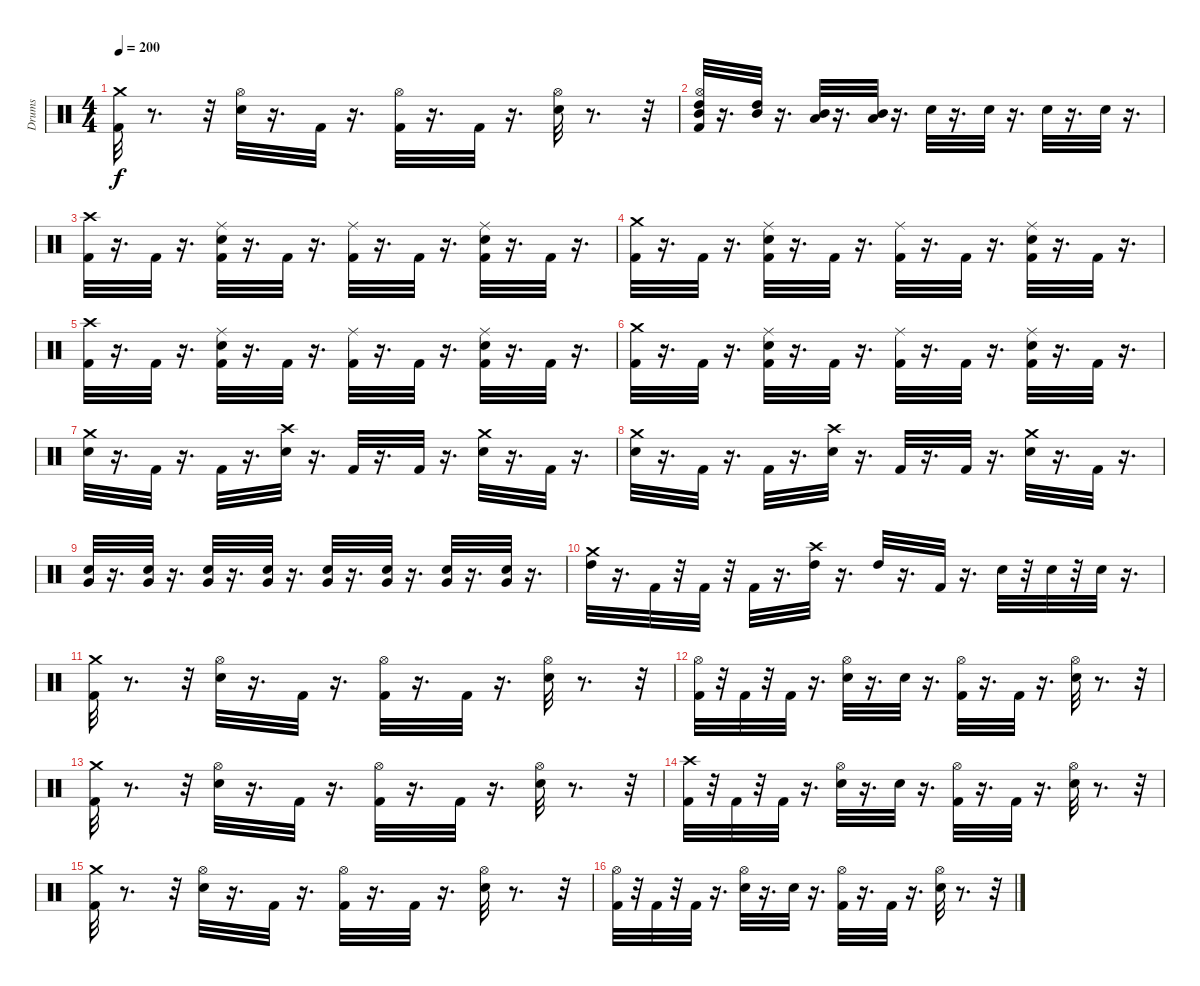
\track ("Drums" "Drums") {instrument percussion}
\staff {score}
\articulation defaults
\ts (4 4)
\tempo 200
\clef neutral
\ks c
("Crash medium (hit)" "Kick (hit) 2").32{dy f} r.8{d} r.32 ("Hi-Hat (open)" "Electric Snare (hit)").32 r.16{d} "Kick (hit) 2".32 r.16{d} ("Hi-Hat (open)" "Kick (hit) 2").32 r.16{d} "Kick (hit) 2".32 r.16{d} ("Hi-Hat (open)" "Electric Snare (hit)").32 r.8{d} r.32 |
("Mid Tom (hit)" "High Tom (hit)" "Hi-Hat (open)" "Kick (hit) 2").32 r.16{d} ("Mid Tom (hit)" "High Tom (hit)").32 r.16{d} ("Low Tom (hit)" "Mid Tom (hit)").32 r.16{d} ("Low Tom (hit)" "Mid Tom (hit)").32 r.16{d} "Electric Snare (hit)".32 r.16{d} "Electric Snare (hit)".32 r.16{d} "Electric Snare (hit)".32 r.16{d} "Electric Snare (hit)".32 r.16{d} |
("Crash high (hit)" "Kick (hit) 2").32 r.16{d} "Kick (hit) 2".32 r.16{d} ("Ride (middle)" "Electric Snare (hit)" "Kick (hit) 2").32 r.16{d} "Kick (hit) 2".32 r.16{d} ("Ride (middle)" "Kick (hit) 2").32 r.16{d} "Kick (hit) 2".32 r.16{d} ("Ride (middle)" "Kick (hit) 2" "Electric Snare (hit)").32 r.16{d} "Kick (hit) 2".32 r.16{d} |
("Crash medium (hit)" "Kick (hit) 2").32 r.16{d} "Kick (hit) 2".32 r.16{d} ("Electric Snare (hit)" "Kick (hit) 2" "Ride (middle)").32 r.16{d} "Kick (hit) 2".32 r.16{d} ("Ride (middle)" "Kick (hit) 2").32 r.16{d} "Kick (hit) 2".32 r.16{d} ("Ride (middle)" "Kick (hit) 2" "Electric Snare (hit)").32 r.16{d} "Kick (hit) 2".32 r.16{d} |
("Crash high (hit)" "Kick (hit) 2").32 r.16{d} "Kick (hit) 2".32 r.16{d} ("Ride (middle)" "Electric Snare (hit)" "Kick (hit) 2").32 r.16{d} "Kick (hit) 2".32 r.16{d} ("Ride (middle)" "Kick (hit) 2").32 r.16{d} "Kick (hit) 2".32 r.16{d} ("Ride (middle)" "Kick (hit) 2" "Electric Snare (hit)").32 r.16{d} "Kick (hit) 2".32 r.16{d} |
("Crash medium (hit)" "Kick (hit) 2").32 r.16{d} "Kick (hit) 2".32 r.16{d} ("Electric Snare (hit)" "Kick (hit) 2" "Ride (middle)").32 r.16{d} "Kick (hit) 2".32 r.16{d} ("Ride (middle)" "Kick (hit) 2").32 r.16{d} "Kick (hit) 2".32 r.16{d} ("Ride (middle)" "Kick (hit) 2" "Electric Snare (hit)").32 r.16{d} "Kick (hit) 2".32 r.16{d} |
("Crash medium (hit)" "Electric Snare (hit)").32 r.16{d} "Kick (hit) 2".32 r.16{d} "Kick (hit) 2".32 r.16{d} ("Electric Snare (hit)" "Crash high (hit)").32 r.16{d} "Kick (hit) 2".32 r.16{d} "Kick (hit) 2".32 r.16{d} ("Electric Snare (hit)" "Crash medium (hit)").32 r.16{d} "Kick (hit) 2".32 r.16{d} |
("Electric Snare (hit)" "Crash medium (hit)").32 r.16{d} "Kick (hit) 2".32 r.16{d} "Kick (hit) 2".32 r.16{d} ("Electric Snare (hit)" "Crash high (hit)").32 r.16{d} "Kick (hit) 2".32 r.16{d} "Kick (hit) 2".32 r.16{d} ("Electric Snare (hit)" "Crash medium (hit)").32 r.16{d} "Kick (hit) 2".32 r.16{d} |
("Electric Snare (hit)" "Very Low Tom (hit)").32 r.16{d} ("Electric Snare (hit)" "Very Low Tom (hit)").32 r.16{d} ("Electric Snare (hit)" "Very Low Tom (hit)").32 r.16{d} ("Electric Snare (hit)" "Very Low Tom (hit)").32 r.16{d} ("Electric Snare (hit)" "Very Low Tom (hit)").32 r.16{d} ("Electric Snare (hit)" "Very Low Tom (hit)").32 r.16{d} ("Electric Snare (hit)" "Very Low Tom (hit)").32 r.16{d} ("Electric Snare (hit)" "Very Low Tom (hit)").32 r.16{d} |
("High Tom (hit)" "Crash medium (hit)").32 r.16{d} "Kick (hit) 2".32 r.32 "Kick (hit) 2".32 r.32 "Kick (hit) 2".32 r.16{d} ("Crash high (hit)" "High Tom (hit)").32 r.16{d} "High Tom (hit)".32 r.16{d} "Kick (hit) 2".32 r.16{d} "Electric Snare (hit)".32 r.32 "Electric Snare (hit)".32 r.32 "Electric Snare (hit)".32 r.16{d} |
("Crash medium (hit)" "Kick (hit) 2").32 r.8{d} r.32 ("Hi-Hat (open)" "Electric Snare (hit)").32 r.16{d} "Kick (hit) 2".32 r.16{d} ("Hi-Hat (open)" "Kick (hit) 2").32 r.16{d} "Kick (hit) 2".32 r.16{d} ("Hi-Hat (open)" "Electric Snare (hit)").32 r.8{d} r.32 |
("Hi-Hat (open)" "Kick (hit) 2").32 r.32 "Kick (hit) 2".32 r.32 "Kick (hit) 2".32 r.16{d} ("Hi-Hat (open)" "Electric Snare (hit)").32 r.16{d} "Electric Snare (hit)".32 r.16{d} ("Hi-Hat (open)" "Kick (hit) 2").32 r.16{d} "Kick (hit) 2".32 r.16{d} ("Hi-Hat (open)" "Electric Snare (hit)").32 r.8{d} r.32 |
("Crash medium (hit)" "Kick (hit) 2").32 r.8{d} r.32 ("Hi-Hat (open)" "Electric Snare (hit)").32 r.16{d} "Kick (hit) 2".32 r.16{d} ("Hi-Hat (open)" "Kick (hit) 2").32 r.16{d} "Kick (hit) 2".32 r.16{d} ("Hi-Hat (open)" "Electric Snare (hit)").32 r.8{d} r.32 |
("Crash high (hit)" "Kick (hit) 2").32 r.32 "Kick (hit) 2".32 r.32 "Kick (hit) 2".32 r.16{d} ("Hi-Hat (open)" "Electric Snare (hit)").32 r.16{d} "Electric Snare (hit)".32 r.16{d} ("Hi-Hat (open)" "Kick (hit) 2").32 r.16{d} "Kick (hit) 2".32 r.16{d} ("Hi-Hat (open)" "Electric Snare (hit)").32 r.8{d} r.32 |
("Crash medium (hit)" "Kick (hit) 2").32 r.8{d} r.32 ("Hi-Hat (open)" "Electric Snare (hit)").32 r.16{d} "Kick (hit) 2".32 r.16{d} ("Hi-Hat (open)" "Kick (hit) 2").32 r.16{d} "Kick (hit) 2".32 r.16{d} ("Hi-Hat (open)" "Electric Snare (hit)").32 r.8{d} r.32 |
("Hi-Hat (open)" "Kick (hit) 2").32 r.32 "Kick (hit) 2".32 r.32 "Kick (hit) 2".32 r.16{d} ("Hi-Hat (open)" "Electric Snare (hit)").32 r.16{d} "Electric Snare (hit)".32 r.16{d} ("Hi-Hat (open)" "Kick (hit) 2").32 r.16{d} "Kick (hit) 2".32 r.16{d} ("Hi-Hat (open)" "Electric Snare (hit)").32 r.8{d} r.32
